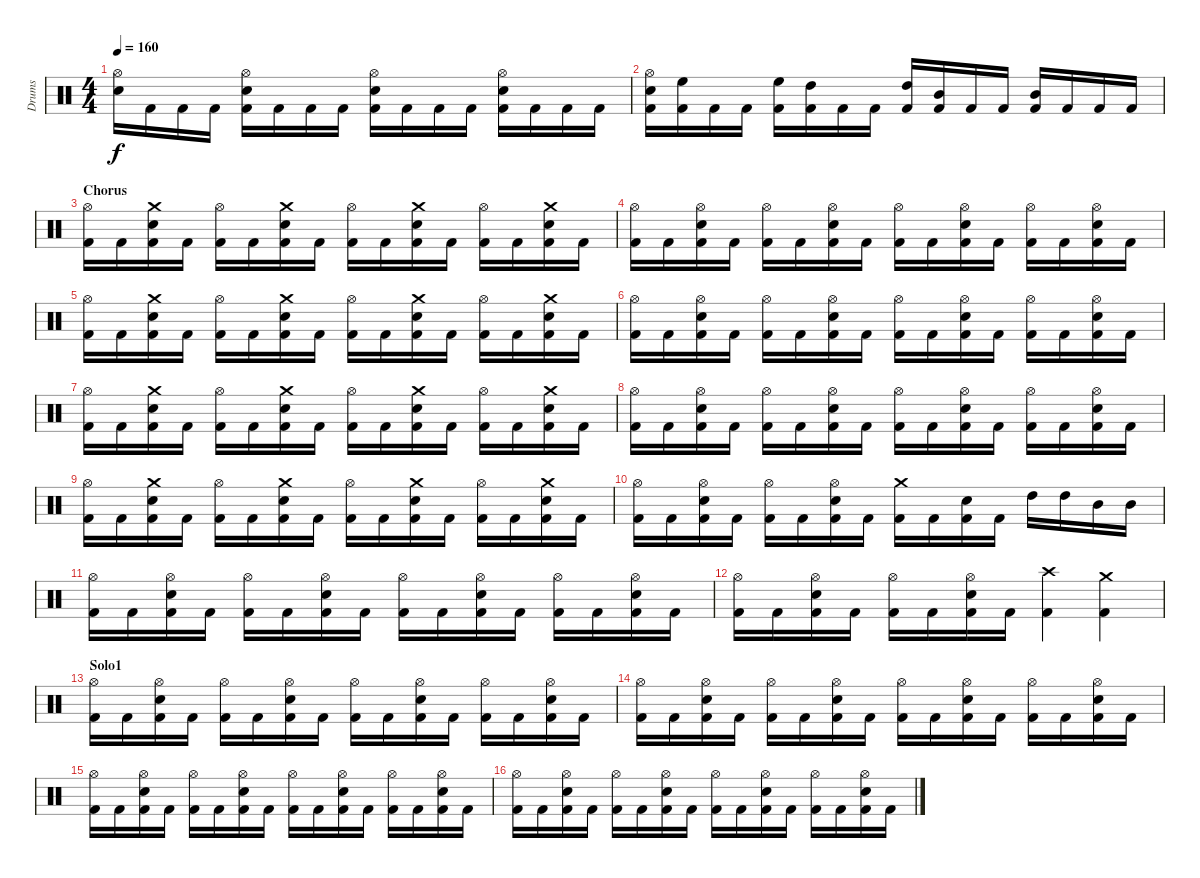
\track ("Drums" "Drums") {instrument percussion}
\staff {score}
\articulation defaults
\ts (4 4)
\tempo 160
\clef neutral
\ks c
("Hi-Hat (open)" "Electric Snare (hit)").16{dy f} "Kick (hit) 2".16 "Kick (hit) 2".16 "Kick (hit) 2".16 ("Hi-Hat (open)" "Electric Snare (hit)" "Kick (hit) 2").16 "Kick (hit) 2".16 "Kick (hit) 2".16 "Kick (hit) 2".16 ("Hi-Hat (open)" "Electric Snare (hit)" "Kick (hit) 2").16 "Kick (hit) 2".16 "Kick (hit) 2".16 "Kick (hit) 2".16 ("Hi-Hat (open)" "Electric Snare (hit)" "Kick (hit) 2").16 "Kick (hit) 2".16 "Kick (hit) 2".16 "Kick (hit) 2".16 |
("Hi-Hat (open)" "Electric Snare (hit)" "Kick (hit) 2").16 ("High Floor Tom (hit)" "Kick (hit) 2").16 "Kick (hit) 2".16 "Kick (hit) 2".16 ("High Floor Tom (hit)" "Kick (hit) 2").16 ("High Tom (hit)" "Kick (hit) 2").16 "Kick (hit) 2".16 "Kick (hit) 2".16 ("High Tom (hit)" "Kick (hit) 2").16 ("Mid Tom (hit)" "Kick (hit) 2").16 "Kick (hit) 2".16 "Kick (hit) 2".16 ("Mid Tom (hit)" "Kick (hit) 2").16 "Kick (hit) 2".16 "Kick (hit) 2".16 "Kick (hit) 2".16 |
\section ("" "Chorus")
("Hi-Hat (open)" "Kick (hit) 2").16 "Kick (hit) 2".16 ("Crash medium (hit)" "Electric Snare (hit)" "Kick (hit) 2").16 "Kick (hit) 2".16 ("Hi-Hat (open)" "Kick (hit) 2").16 "Kick (hit) 2".16 ("Crash medium (hit)" "Electric Snare (hit)" "Kick (hit) 2").16 "Kick (hit) 2".16 ("Hi-Hat (open)" "Kick (hit) 2").16 "Kick (hit) 2".16 ("Crash medium (hit)" "Electric Snare (hit)" "Kick (hit) 2").16 "Kick (hit) 2".16 ("Hi-Hat (open)" "Kick (hit) 2").16 "Kick (hit) 2".16 ("Crash medium (hit)" "Electric Snare (hit)" "Kick (hit) 2").16 "Kick (hit) 2".16 |
("Hi-Hat (open)" "Kick (hit) 2").16 "Kick (hit) 2".16 ("Hi-Hat (open)" "Electric Snare (hit)" "Kick (hit) 2").16 "Kick (hit) 2".16 ("Hi-Hat (open)" "Kick (hit) 2").16 "Kick (hit) 2".16 ("Hi-Hat (open)" "Electric Snare (hit)" "Kick (hit) 2").16 "Kick (hit) 2".16 ("Hi-Hat (open)" "Kick (hit) 2").16 "Kick (hit) 2".16 ("Hi-Hat (open)" "Electric Snare (hit)" "Kick (hit) 2").16 "Kick (hit) 2".16 ("Hi-Hat (open)" "Kick (hit) 2").16 "Kick (hit) 2".16 ("Hi-Hat (open)" "Electric Snare (hit)" "Kick (hit) 2").16 "Kick (hit) 2".16 |
("Hi-Hat (open)" "Kick (hit) 2").16 "Kick (hit) 2".16 ("Crash medium (hit)" "Electric Snare (hit)" "Kick (hit) 2").16 "Kick (hit) 2".16 ("Hi-Hat (open)" "Kick (hit) 2").16 "Kick (hit) 2".16 ("Crash medium (hit)" "Electric Snare (hit)" "Kick (hit) 2").16 "Kick (hit) 2".16 ("Hi-Hat (open)" "Kick (hit) 2").16 "Kick (hit) 2".16 ("Crash medium (hit)" "Electric Snare (hit)" "Kick (hit) 2").16 "Kick (hit) 2".16 ("Hi-Hat (open)" "Kick (hit) 2").16 "Kick (hit) 2".16 ("Crash medium (hit)" "Electric Snare (hit)" "Kick (hit) 2").16 "Kick (hit) 2".16 |
("Hi-Hat (open)" "Kick (hit) 2").16 "Kick (hit) 2".16 ("Hi-Hat (open)" "Electric Snare (hit)" "Kick (hit) 2").16 "Kick (hit) 2".16 ("Hi-Hat (open)" "Kick (hit) 2").16 "Kick (hit) 2".16 ("Hi-Hat (open)" "Electric Snare (hit)" "Kick (hit) 2").16 "Kick (hit) 2".16 ("Hi-Hat (open)" "Kick (hit) 2").16 "Kick (hit) 2".16 ("Hi-Hat (open)" "Electric Snare (hit)" "Kick (hit) 2").16 "Kick (hit) 2".16 ("Hi-Hat (open)" "Kick (hit) 2").16 "Kick (hit) 2".16 ("Hi-Hat (open)" "Electric Snare (hit)" "Kick (hit) 2").16 "Kick (hit) 2".16 |
("Hi-Hat (open)" "Kick (hit) 2").16 "Kick (hit) 2".16 ("Crash medium (hit)" "Electric Snare (hit)" "Kick (hit) 2").16 "Kick (hit) 2".16 ("Hi-Hat (open)" "Kick (hit) 2").16 "Kick (hit) 2".16 ("Crash medium (hit)" "Electric Snare (hit)" "Kick (hit) 2").16 "Kick (hit) 2".16 ("Hi-Hat (open)" "Kick (hit) 2").16 "Kick (hit) 2".16 ("Crash medium (hit)" "Electric Snare (hit)" "Kick (hit) 2").16 "Kick (hit) 2".16 ("Hi-Hat (open)" "Kick (hit) 2").16 "Kick (hit) 2".16 ("Crash medium (hit)" "Electric Snare (hit)" "Kick (hit) 2").16 "Kick (hit) 2".16 |
("Hi-Hat (open)" "Kick (hit) 2").16 "Kick (hit) 2".16 ("Hi-Hat (open)" "Electric Snare (hit)" "Kick (hit) 2").16 "Kick (hit) 2".16 ("Hi-Hat (open)" "Kick (hit) 2").16 "Kick (hit) 2".16 ("Hi-Hat (open)" "Electric Snare (hit)" "Kick (hit) 2").16 "Kick (hit) 2".16 ("Hi-Hat (open)" "Kick (hit) 2").16 "Kick (hit) 2".16 ("Hi-Hat (open)" "Electric Snare (hit)" "Kick (hit) 2").16 "Kick (hit) 2".16 ("Hi-Hat (open)" "Kick (hit) 2").16 "Kick (hit) 2".16 ("Hi-Hat (open)" "Electric Snare (hit)" "Kick (hit) 2").16 "Kick (hit) 2".16 |
("Hi-Hat (open)" "Kick (hit) 2").16 "Kick (hit) 2".16 ("Crash medium (hit)" "Electric Snare (hit)" "Kick (hit) 2").16 "Kick (hit) 2".16 ("Hi-Hat (open)" "Kick (hit) 2").16 "Kick (hit) 2".16 ("Crash medium (hit)" "Electric Snare (hit)" "Kick (hit) 2").16 "Kick (hit) 2".16 ("Hi-Hat (open)" "Kick (hit) 2").16 "Kick (hit) 2".16 ("Crash medium (hit)" "Electric Snare (hit)" "Kick (hit) 2").16 "Kick (hit) 2".16 ("Hi-Hat (open)" "Kick (hit) 2").16 "Kick (hit) 2".16 ("Crash medium (hit)" "Electric Snare (hit)" "Kick (hit) 2").16 "Kick (hit) 2".16 |
("Hi-Hat (open)" "Kick (hit) 2").16 "Kick (hit) 2".16 ("Hi-Hat (open)" "Electric Snare (hit)" "Kick (hit) 2").16 "Kick (hit) 2".16 ("Hi-Hat (open)" "Kick (hit) 2").16 "Kick (hit) 2".16 ("Hi-Hat (open)" "Electric Snare (hit)" "Kick (hit) 2").16 "Kick (hit) 2".16 ("Crash medium (hit)" "Kick (hit) 2").16 "Kick (hit) 2".16 ("Electric Snare (hit)" "Kick (hit) 2").16 "Kick (hit) 2".16 "High Tom (hit)".16 "High Tom (hit)".16 "Mid Tom (hit)".16 "Mid Tom (hit)".16 |
("Hi-Hat (open)" "Kick (hit) 2").16 "Kick (hit) 2".16 ("Hi-Hat (open)" "Electric Snare (hit)" "Kick (hit) 2").16 "Kick (hit) 2".16 ("Hi-Hat (open)" "Kick (hit) 2").16 "Kick (hit) 2".16 ("Hi-Hat (open)" "Electric Snare (hit)" "Kick (hit) 2").16 "Kick (hit) 2".16 ("Hi-Hat (open)" "Kick (hit) 2").16 "Kick (hit) 2".16 ("Hi-Hat (open)" "Electric Snare (hit)" "Kick (hit) 2").16 "Kick (hit) 2".16 ("Hi-Hat (open)" "Kick (hit) 2").16 "Kick (hit) 2".16 ("Hi-Hat (open)" "Electric Snare (hit)" "Kick (hit) 2").16 "Kick (hit) 2".16 |
("Hi-Hat (open)" "Kick (hit) 2").16 "Kick (hit) 2".16 ("Hi-Hat (open)" "Electric Snare (hit)" "Kick (hit) 2").16 "Kick (hit) 2".16 ("Hi-Hat (open)" "Kick (hit) 2").16 "Kick (hit) 2".16 ("Hi-Hat (open)" "Electric Snare (hit)" "Kick (hit) 2").16 "Kick (hit) 2".16 ("Crash high (hit)" "Kick (hit) 2").4 ("Crash medium (hit)" "Kick (hit) 2").4 |
\section ("" "Solo1")
("Hi-Hat (open)" "Kick (hit) 2").16 "Kick (hit) 2".16 ("Hi-Hat (open)" "Electric Snare (hit)" "Kick (hit) 2").16 "Kick (hit) 2".16 ("Hi-Hat (open)" "Kick (hit) 2").16 "Kick (hit) 2".16 ("Hi-Hat (open)" "Electric Snare (hit)" "Kick (hit) 2").16 "Kick (hit) 2".16 ("Hi-Hat (open)" "Kick (hit) 2").16 "Kick (hit) 2".16 ("Hi-Hat (open)" "Electric Snare (hit)" "Kick (hit) 2").16 "Kick (hit) 2".16 ("Hi-Hat (open)" "Kick (hit) 2").16 "Kick (hit) 2".16 ("Hi-Hat (open)" "Electric Snare (hit)" "Kick (hit) 2").16 "Kick (hit) 2".16 |
("Hi-Hat (open)" "Kick (hit) 2").16 "Kick (hit) 2".16 ("Hi-Hat (open)" "Electric Snare (hit)" "Kick (hit) 2").16 "Kick (hit) 2".16 ("Hi-Hat (open)" "Kick (hit) 2").16 "Kick (hit) 2".16 ("Hi-Hat (open)" "Electric Snare (hit)" "Kick (hit) 2").16 "Kick (hit) 2".16 ("Hi-Hat (open)" "Kick (hit) 2").16 "Kick (hit) 2".16 ("Hi-Hat (open)" "Electric Snare (hit)" "Kick (hit) 2").16 "Kick (hit) 2".16 ("Hi-Hat (open)" "Kick (hit) 2").16 "Kick (hit) 2".16 ("Hi-Hat (open)" "Electric Snare (hit)" "Kick (hit) 2").16 "Kick (hit) 2".16 |
("Hi-Hat (open)" "Kick (hit) 2").16 "Kick (hit) 2".16 ("Hi-Hat (open)" "Electric Snare (hit)" "Kick (hit) 2").16 "Kick (hit) 2".16 ("Hi-Hat (open)" "Kick (hit) 2").16 "Kick (hit) 2".16 ("Hi-Hat (open)" "Electric Snare (hit)" "Kick (hit) 2").16 "Kick (hit) 2".16 ("Hi-Hat (open)" "Kick (hit) 2").16 "Kick (hit) 2".16 ("Hi-Hat (open)" "Electric Snare (hit)" "Kick (hit) 2").16 "Kick (hit) 2".16 ("Hi-Hat (open)" "Kick (hit) 2").16 "Kick (hit) 2".16 ("Hi-Hat (open)" "Electric Snare (hit)" "Kick (hit) 2").16 "Kick (hit) 2".16 |
("Hi-Hat (open)" "Kick (hit) 2").16 "Kick (hit) 2".16 ("Hi-Hat (open)" "Electric Snare (hit)" "Kick (hit) 2").16 "Kick (hit) 2".16 ("Hi-Hat (open)" "Kick (hit) 2").16 "Kick (hit) 2".16 ("Hi-Hat (open)" "Electric Snare (hit)" "Kick (hit) 2").16 "Kick (hit) 2".16 ("Hi-Hat (open)" "Kick (hit) 2").16 "Kick (hit) 2".16 ("Hi-Hat (open)" "Electric Snare (hit)" "Kick (hit) 2").16 "Kick (hit) 2".16 ("Hi-Hat (open)" "Kick (hit) 2").16 "Kick (hit) 2".16 ("Hi-Hat (open)" "Electric Snare (hit)" "Kick (hit) 2").16 "Kick (hit) 2".16
